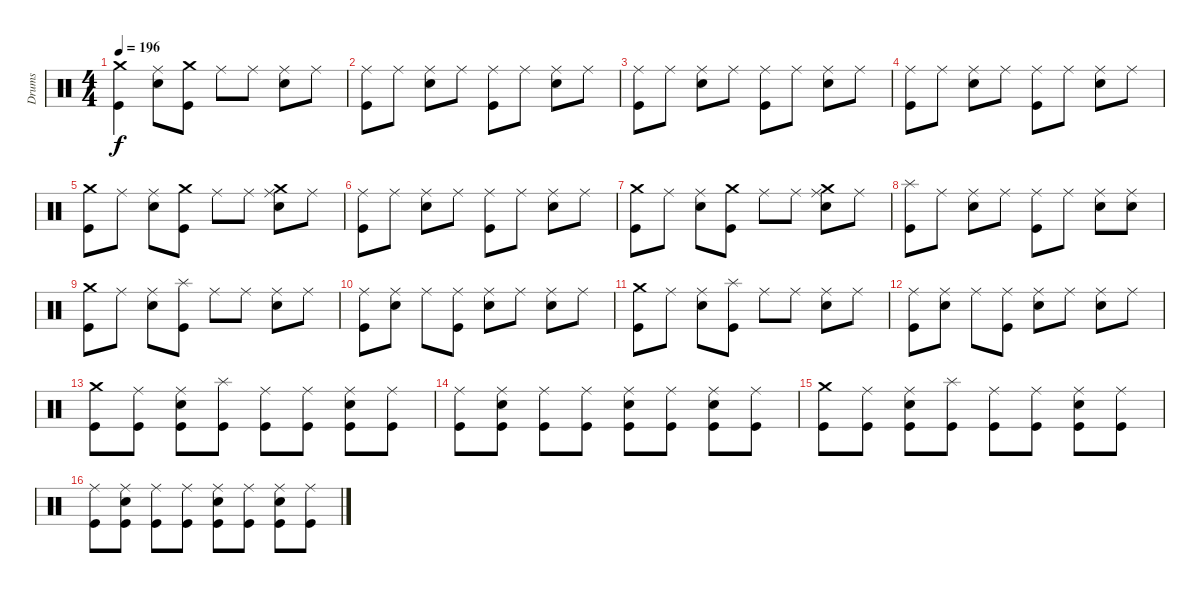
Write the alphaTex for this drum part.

\track ("Drums" "Drums") {instrument percussion}
\staff {score}
\articulation defaults
\ts (4 4)
\tempo 196
\clef neutral
\ks c
("Crash medium (hit)" "Kick (hit)").4{dy f} ("Ride (middle)" "Electric Snare (hit)").8 ("Crash medium (hit)" "Kick (hit)").8 "Ride (middle)".8 "Ride (middle)".8 ("Ride (middle)" "Electric Snare (hit)").8 "Ride (middle)".8 |
("Ride (middle)" "Kick (hit)").8 "Ride (middle)".8 ("Ride (middle)" "Electric Snare (hit)").8 "Ride (middle)".8 ("Ride (middle)" "Kick (hit)").8 "Ride (middle)".8 ("Ride (middle)" "Electric Snare (hit)").8 "Ride (middle)".8 |
("Ride (middle)" "Kick (hit)").8 "Ride (middle)".8 ("Ride (middle)" "Electric Snare (hit)").8 "Ride (middle)".8 ("Ride (middle)" "Kick (hit)").8 "Ride (middle)".8 ("Ride (middle)" "Electric Snare (hit)").8 "Ride (middle)".8 |
("Ride (middle)" "Kick (hit)").8 "Ride (middle)".8 ("Ride (middle)" "Electric Snare (hit)").8 "Ride (middle)".8 ("Ride (middle)" "Kick (hit)").8 "Ride (middle)".8 ("Ride (middle)" "Electric Snare (hit)").8 "Ride (middle)".8 |
("Crash medium (hit)" "Kick (hit)").8 "Ride (middle)".8 ("Ride (middle)" "Electric Snare (hit)").8 ("Crash medium (hit)" "Kick (hit)").8 "Ride (middle)".8 "Ride (middle)".8 ("Crash medium (hit)" "Ride (middle)" "Electric Snare (hit)").8 "Ride (middle)".8 |
("Ride (middle)" "Kick (hit)").8 "Ride (middle)".8 ("Ride (middle)" "Electric Snare (hit)").8 "Ride (middle)".8 ("Ride (middle)" "Kick (hit)").8 "Ride (middle)".8 ("Ride (middle)" "Electric Snare (hit)").8 "Ride (middle)".8 |
("Crash medium (hit)" "Kick (hit)").8 "Ride (middle)".8 ("Ride (middle)" "Electric Snare (hit)").8 ("Crash medium (hit)" "Kick (hit)").8 "Ride (middle)".8 "Ride (middle)".8 ("Crash medium (hit)" "Ride (middle)" "Electric Snare (hit)").8 "Ride (middle)".8 |
("Splash (hit)" "Kick (hit)").8 "Ride (middle)".8 ("Ride (middle)" "Electric Snare (hit)").8 "Ride (middle)".8 ("Ride (middle)" "Kick (hit)").8 "Ride (middle)".8 ("Ride (middle)" "Electric Snare (hit)").8 ("Ride (middle)" "Electric Snare (hit)").8 |
("Crash medium (hit)" "Kick (hit)").8 "Ride (middle)".8 ("Ride (middle)" "Electric Snare (hit)").8 ("Splash (hit)" "Kick (hit)").8 "Ride (middle)".8 "Ride (middle)".8 ("Ride (middle)" "Electric Snare (hit)").8 "Ride (middle)".8 |
("Ride (middle)" "Kick (hit)").8 ("Ride (middle)" "Electric Snare (hit)").8 "Ride (middle)".8 ("Ride (middle)" "Kick (hit)").8 ("Ride (middle)" "Electric Snare (hit)").8 "Ride (middle)".8 ("Ride (middle)" "Electric Snare (hit)").8 "Ride (middle)".8 |
("Crash medium (hit)" "Kick (hit)").8 "Ride (middle)".8 ("Ride (middle)" "Electric Snare (hit)").8 ("Splash (hit)" "Kick (hit)").8 "Ride (middle)".8 "Ride (middle)".8 ("Ride (middle)" "Electric Snare (hit)").8 "Ride (middle)".8 |
("Ride (middle)" "Kick (hit)").8 ("Ride (middle)" "Electric Snare (hit)").8 "Ride (middle)".8 ("Ride (middle)" "Kick (hit)").8 ("Ride (middle)" "Electric Snare (hit)").8 "Ride (middle)".8 ("Ride (middle)" "Electric Snare (hit)").8 "Ride (middle)".8 |
("Crash medium (hit)" "Kick (hit)").8 ("Ride (middle)" "Kick (hit)").8 ("Ride (middle)" "Electric Snare (hit)" "Kick (hit)").8 ("Splash (hit)" "Kick (hit)").8 ("Ride (middle)" "Kick (hit)").8 ("Ride (middle)" "Kick (hit)").8 ("Ride (middle)" "Electric Snare (hit)" "Kick (hit)").8 ("Ride (middle)" "Kick (hit)").8 |
("Ride (middle)" "Kick (hit)").8 ("Ride (middle)" "Electric Snare (hit)" "Kick (hit)").8 ("Ride (middle)" "Kick (hit)").8 ("Ride (middle)" "Kick (hit)").8 ("Ride (middle)" "Electric Snare (hit)" "Kick (hit)").8 ("Ride (middle)" "Kick (hit)").8 ("Ride (middle)" "Electric Snare (hit)" "Kick (hit)").8 ("Ride (middle)" "Kick (hit)").8 |
("Crash medium (hit)" "Kick (hit)").8 ("Ride (middle)" "Kick (hit)").8 ("Ride (middle)" "Electric Snare (hit)" "Kick (hit)").8 ("Splash (hit)" "Kick (hit)").8 ("Ride (middle)" "Kick (hit)").8 ("Ride (middle)" "Kick (hit)").8 ("Ride (middle)" "Electric Snare (hit)" "Kick (hit)").8 ("Ride (middle)" "Kick (hit)").8 |
("Ride (middle)" "Kick (hit)").8 ("Ride (middle)" "Electric Snare (hit)" "Kick (hit)").8 ("Ride (middle)" "Kick (hit)").8 ("Ride (middle)" "Kick (hit)").8 ("Ride (middle)" "Electric Snare (hit)" "Kick (hit)").8 ("Ride (middle)" "Kick (hit)").8 ("Ride (middle)" "Electric Snare (hit)" "Kick (hit)").8 ("Ride (middle)" "Kick (hit)").8
